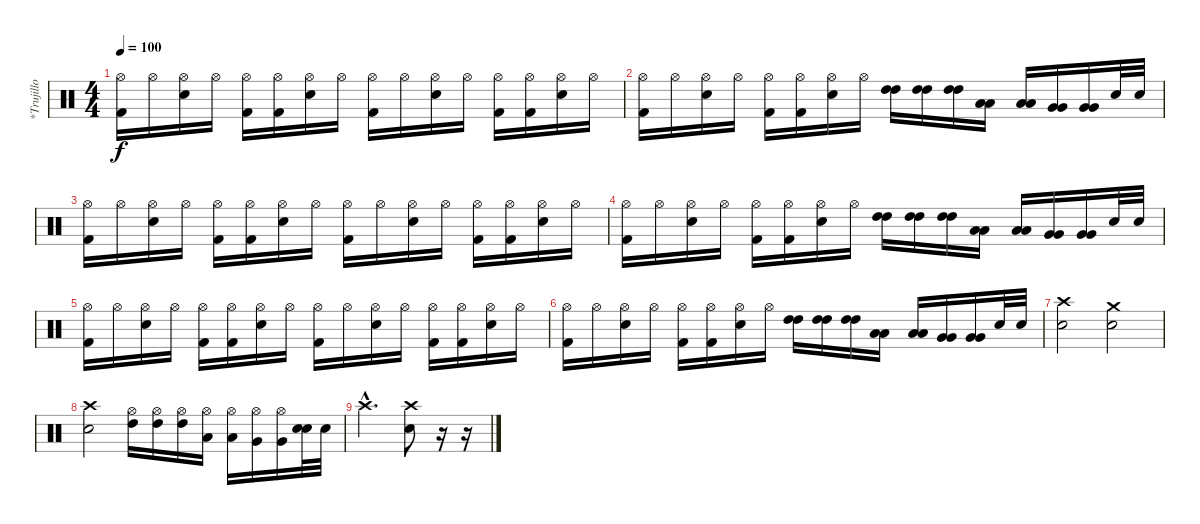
\track ("*Trujillo" "*Trujillo") {instrument percussion}
\staff {score}
\articulation defaults
\ts (4 4)
\tempo 100
\clef neutral
\ks c
("Hi-Hat (open)" "Kick (hit) 2").16{dy f} "Hi-Hat (open)".16 ("Hi-Hat (open)" "Electric Snare (hit)").16 "Hi-Hat (open)".16 ("Hi-Hat (open)" "Kick (hit) 2").16 ("Hi-Hat (open)" "Kick (hit) 2").16 ("Hi-Hat (open)" "Electric Snare (hit)").16 "Hi-Hat (open)".16 ("Hi-Hat (open)" "Kick (hit) 2").16 "Hi-Hat (open)".16 ("Hi-Hat (open)" "Electric Snare (hit)").16 "Hi-Hat (open)".16 ("Hi-Hat (open)" "Kick (hit) 2").16 ("Hi-Hat (open)" "Kick (hit) 2").16 ("Hi-Hat (open)" "Electric Snare (hit)").16 "Hi-Hat (open)".16 |
("Hi-Hat (open)" "Kick (hit) 2").16 "Hi-Hat (open)".16 ("Hi-Hat (open)" "Electric Snare (hit)").16 "Hi-Hat (open)".16 ("Hi-Hat (open)" "Kick (hit) 2").16 ("Hi-Hat (open)" "Kick (hit) 2").16 ("Hi-Hat (open)" "Electric Snare (hit)").16 "Hi-Hat (open)".16 ("High Tom (hit)" "High Tom (hit)").16 ("High Tom (hit)" "High Tom (hit)").16 ("High Tom (hit)" "High Tom (hit)").16 ("Low Tom (hit)" "Low Tom (hit)").16 ("Low Tom (hit)" "Low Tom (hit)").16 ("Very Low Tom (hit)" "Very Low Tom (hit)").16 ("Very Low Tom (hit)" "Very Low Tom (hit)").16 "Electric Snare (hit)".32 "Electric Snare (hit)".32 |
("Hi-Hat (open)" "Kick (hit) 2").16 "Hi-Hat (open)".16 ("Hi-Hat (open)" "Electric Snare (hit)").16 "Hi-Hat (open)".16 ("Hi-Hat (open)" "Kick (hit) 2").16 ("Hi-Hat (open)" "Kick (hit) 2").16 ("Hi-Hat (open)" "Electric Snare (hit)").16 "Hi-Hat (open)".16 ("Hi-Hat (open)" "Kick (hit) 2").16 "Hi-Hat (open)".16 ("Hi-Hat (open)" "Electric Snare (hit)").16 "Hi-Hat (open)".16 ("Hi-Hat (open)" "Kick (hit) 2").16 ("Hi-Hat (open)" "Kick (hit) 2").16 ("Hi-Hat (open)" "Electric Snare (hit)").16 "Hi-Hat (open)".16 |
("Hi-Hat (open)" "Kick (hit) 2").16 "Hi-Hat (open)".16 ("Hi-Hat (open)" "Electric Snare (hit)").16 "Hi-Hat (open)".16 ("Hi-Hat (open)" "Kick (hit) 2").16 ("Hi-Hat (open)" "Kick (hit) 2").16 ("Hi-Hat (open)" "Electric Snare (hit)").16 "Hi-Hat (open)".16 ("High Tom (hit)" "High Tom (hit)").16 ("High Tom (hit)" "High Tom (hit)").16 ("High Tom (hit)" "High Tom (hit)").16 ("Low Tom (hit)" "Low Tom (hit)").16 ("Low Tom (hit)" "Low Tom (hit)").16 ("Very Low Tom (hit)" "Very Low Tom (hit)").16 ("Very Low Tom (hit)" "Very Low Tom (hit)").16 "Electric Snare (hit)".32 "Electric Snare (hit)".32 |
("Hi-Hat (open)" "Kick (hit) 2").16 "Hi-Hat (open)".16 ("Hi-Hat (open)" "Electric Snare (hit)").16 "Hi-Hat (open)".16 ("Hi-Hat (open)" "Kick (hit) 2").16 ("Hi-Hat (open)" "Kick (hit) 2").16 ("Hi-Hat (open)" "Electric Snare (hit)").16 "Hi-Hat (open)".16 ("Hi-Hat (open)" "Kick (hit) 2").16 "Hi-Hat (open)".16 ("Hi-Hat (open)" "Electric Snare (hit)").16 "Hi-Hat (open)".16 ("Hi-Hat (open)" "Kick (hit) 2").16 ("Hi-Hat (open)" "Kick (hit) 2").16 ("Hi-Hat (open)" "Electric Snare (hit)").16 "Hi-Hat (open)".16 |
("Hi-Hat (open)" "Kick (hit) 2").16 "Hi-Hat (open)".16 ("Hi-Hat (open)" "Electric Snare (hit)").16 "Hi-Hat (open)".16 ("Hi-Hat (open)" "Kick (hit) 2").16 ("Hi-Hat (open)" "Kick (hit) 2").16 ("Hi-Hat (open)" "Electric Snare (hit)").16 "Hi-Hat (open)".16 ("High Tom (hit)" "High Tom (hit)").16 ("High Tom (hit)" "High Tom (hit)").16 ("High Tom (hit)" "High Tom (hit)").16 ("Low Tom (hit)" "Low Tom (hit)").16 ("Low Tom (hit)" "Low Tom (hit)").16 ("Very Low Tom (hit)" "Very Low Tom (hit)").16 ("Very Low Tom (hit)" "Very Low Tom (hit)").16 "Electric Snare (hit)".32 "Electric Snare (hit)".32 |
("Crash high (hit)" "Electric Snare (hit)").2 ("Crash medium (hit)" "Electric Snare (hit)").2 |
("Crash high (hit)" "Electric Snare (hit)").2 ("High Tom (hit)" "Hi-Hat (open)").16 ("High Tom (hit)" "Hi-Hat (open)").16 ("High Tom (hit)" "Hi-Hat (open)").16 ("Low Tom (hit)" "Hi-Hat (open)").16 ("Low Tom (hit)" "Hi-Hat (open)").16 ("Very Low Tom (hit)" "Hi-Hat (open)").16 ("Very Low Tom (hit)" "Hi-Hat (open)").16 ("Electric Snare (hit)" "Electric Snare (hit)").32 "Electric Snare (hit)".32 |
"Crash high (hit)"{hac}.2{d} ("Crash high (hit)" "Electric Snare (hit)").8 r.16 r.16
